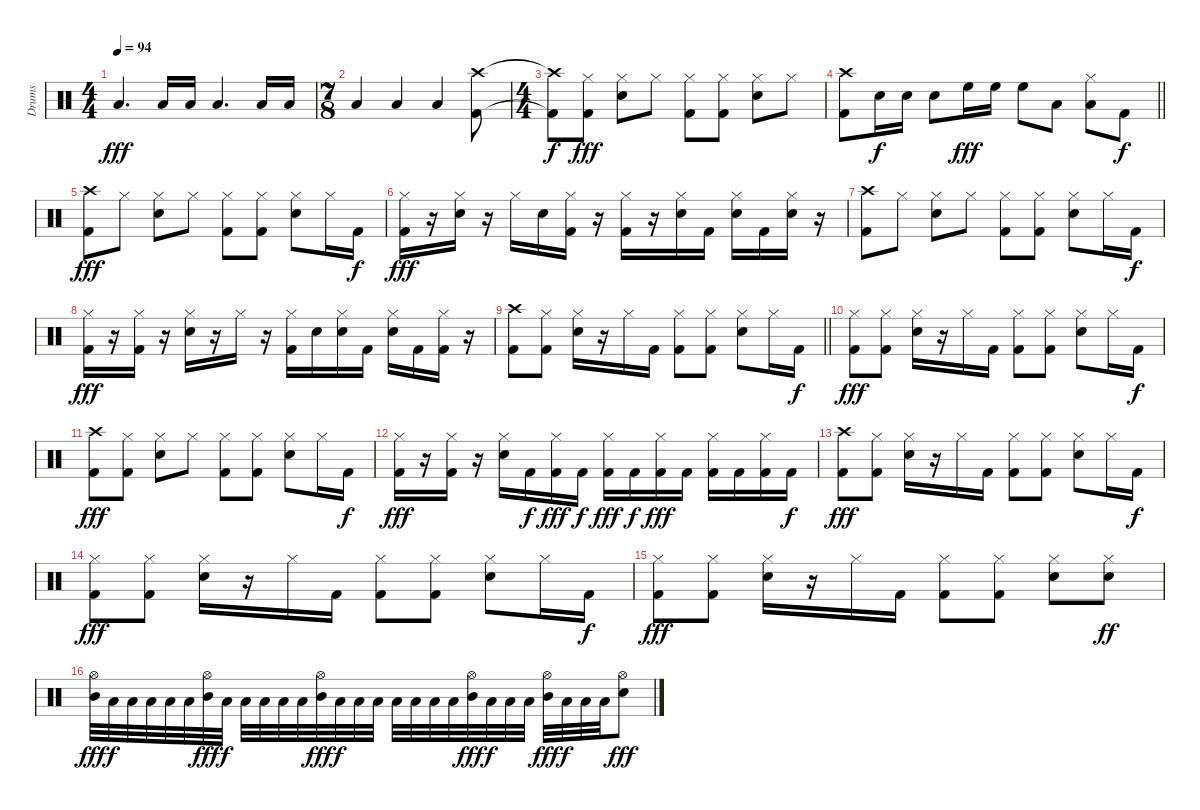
\track ("Drums" "Drums") {instrument percussion}
\staff {score}
\articulation defaults
\ts (4 4)
\tempo 94
\clef neutral
\ks c "Low Floor Tom (hit)".4{d dy fff} "Low Floor Tom (hit)".16 "Low Floor Tom (hit)".16 "Low Floor Tom (hit)".4{d} "Low Floor Tom (hit)".16 "Low Floor Tom (hit)".16
|
\ts (7 8)
"Low Floor Tom (hit)".4 "Low Floor Tom (hit)".4 "Low Floor Tom (hit)".4 ("Crash high (hit)" "Kick (hit) 2").8 |
\ts (4 4)
("Crash high (hit)"{t} "Kick (hit) 2"{t}).8{dy f} ("Hi-Hat (closed)" "Kick (hit) 2").8{dy fff} ("Hi-Hat (closed)" "Snare (hit) 2").8 "Hi-Hat (closed)".8 ("Hi-Hat (closed)" "Kick (hit) 2").8 ("Hi-Hat (closed)" "Kick (hit) 2").8 ("Hi-Hat (closed)" "Snare (hit) 2").8 "Hi-Hat (closed)".8 |
\barLineRight lightlight
("Crash high (hit)" "Kick (hit) 2").8 "Snare (hit) 2".16{dy f} "Snare (hit) 2".16 "Snare (hit) 2".8 "High Floor Tom (hit)".16{dy fff} "High Floor Tom (hit)".16 "High Floor Tom (hit)".8 "Low Floor Tom (hit)".8 ("Hi-Hat (closed)" "Low Floor Tom (hit)").8 "Kick (hit) 2".8{dy f} |
("Crash high (hit)" "Kick (hit) 2").8{dy fff} "Hi-Hat (closed)".8 ("Hi-Hat (closed)" "Snare (hit) 2").8 "Hi-Hat (closed)".8 ("Hi-Hat (closed)" "Kick (hit) 2").8 ("Hi-Hat (closed)" "Kick (hit) 2").8 ("Hi-Hat (closed)" "Snare (hit) 2").8 "Hi-Hat (closed)".16 "Kick (hit) 2".16{dy f} |
("Hi-Hat (closed)" "Kick (hit) 2").16{dy fff} r.16 ("Hi-Hat (closed)" "Snare (hit) 2").16 r.16 "Hi-Hat (closed)".16 "Snare (hit) 2".16 ("Hi-Hat (closed)" "Kick (hit) 2").16 r.16 ("Hi-Hat (closed)" "Kick (hit) 2").16 r.16 ("Hi-Hat (closed)" "Snare (hit) 2").16 "Kick (hit) 2".16 ("Hi-Hat (closed)" "Snare (hit) 2").16 "Kick (hit) 2".16 ("Hi-Hat (closed)" "Snare (hit) 2").16 r.16 |
("Crash high (hit)" "Kick (hit) 2").8 "Hi-Hat (closed)".8 ("Hi-Hat (closed)" "Snare (hit) 2").8 "Hi-Hat (closed)".8 ("Hi-Hat (closed)" "Kick (hit) 2").8 ("Hi-Hat (closed)" "Kick (hit) 2").8 ("Hi-Hat (closed)" "Snare (hit) 2").8 "Hi-Hat (closed)".16 "Kick (hit) 2".16{dy f} |
("Hi-Hat (closed)" "Kick (hit) 2").16{dy fff} r.16 ("Hi-Hat (closed)" "Kick (hit) 2").16 r.16 ("Hi-Hat (closed)" "Snare (hit) 2").16 r.16 "Hi-Hat (closed)".16 r.16 ("Hi-Hat (closed)" "Kick (hit) 2").16 "Snare (hit) 2".16 ("Hi-Hat (closed)" "Snare (hit) 2").16 "Kick (hit) 2".16 ("Hi-Hat (closed)" "Snare (hit) 2").16 "Kick (hit) 2".16 ("Hi-Hat (closed)" "Kick (hit) 2").16 r.16 |
\barLineRight lightlight
("Crash high (hit)" "Kick (hit) 2").8 ("Hi-Hat (closed)" "Kick (hit) 2").8 ("Hi-Hat (closed)" "Snare (hit) 2").16 r.16 "Hi-Hat (closed)".16 "Kick (hit) 2".16 ("Hi-Hat (closed)" "Kick (hit) 2").8 ("Hi-Hat (closed)" "Kick (hit) 2").8 ("Hi-Hat (closed)" "Snare (hit) 2").8 "Hi-Hat (closed)".16 "Kick (hit) 2".16{dy f} |
("Hi-Hat (closed)" "Kick (hit) 2").8{dy fff} ("Hi-Hat (closed)" "Kick (hit) 2").8 ("Hi-Hat (closed)" "Snare (hit) 2").16 r.16 "Hi-Hat (closed)".16 "Kick (hit) 2".16 ("Hi-Hat (closed)" "Kick (hit) 2").8 ("Hi-Hat (closed)" "Kick (hit) 2").8 ("Hi-Hat (closed)" "Snare (hit) 2").8 "Hi-Hat (closed)".16 "Kick (hit) 2".16{dy f} |
("Crash high (hit)" "Kick (hit) 2").8{dy fff} ("Hi-Hat (closed)" "Kick (hit) 2").8 ("Hi-Hat (closed)" "Snare (hit) 2").8 "Hi-Hat (closed)".8 ("Hi-Hat (closed)" "Kick (hit) 2").8 ("Hi-Hat (closed)" "Kick (hit) 2").8 ("Hi-Hat (closed)" "Snare (hit) 2").8 "Hi-Hat (closed)".16 "Kick (hit) 2".16{dy f} |
("Hi-Hat (closed)" "Kick (hit) 2").16{dy fff} r.16 ("Hi-Hat (closed)" "Kick (hit) 2").16 r.16 ("Hi-Hat (closed)" "Snare (hit) 2").16 "Kick (hit) 2".16{dy f} ("Hi-Hat (closed)" "Kick (hit) 2").16{dy fff} "Kick (hit) 2".16{dy f} ("Hi-Hat (closed)" "Kick (hit) 2").16{dy fff} "Kick (hit) 2".16{dy f} ("Hi-Hat (closed)" "Kick (hit) 2").16{dy fff} "Kick (hit) 2".16 ("Hi-Hat (closed)" "Kick (hit) 2").16 "Kick (hit) 2".16 ("Hi-Hat (closed)" "Kick (hit) 2").16 "Kick (hit) 2".16{dy f} |
("Crash high (hit)" "Kick (hit) 2").8{dy fff} ("Hi-Hat (closed)" "Kick (hit) 2").8 ("Hi-Hat (closed)" "Snare (hit) 2").16 r.16 "Hi-Hat (closed)".16 "Kick (hit) 2".16 ("Hi-Hat (closed)" "Kick (hit) 2").8 ("Hi-Hat (closed)" "Kick (hit) 2").8 ("Hi-Hat (closed)" "Snare (hit) 2").8 "Hi-Hat (closed)".16 "Kick (hit) 2".16{dy f} |
("Hi-Hat (closed)" "Kick (hit) 2").8{dy fff} ("Hi-Hat (closed)" "Kick (hit) 2").8 ("Hi-Hat (closed)" "Snare (hit) 2").16 r.16 "Hi-Hat (closed)".16 "Kick (hit) 2".16 ("Hi-Hat (closed)" "Kick (hit) 2").8 ("Hi-Hat (closed)" "Kick (hit) 2").8 ("Hi-Hat (closed)" "Snare (hit) 2").8 "Hi-Hat (closed)".16 "Kick (hit) 2".16{dy f} |
("Hi-Hat (closed)" "Kick (hit) 2").8{dy fff} ("Hi-Hat (closed)" "Kick (hit) 2").8 ("Hi-Hat (closed)" "Snare (hit) 2").16 r.16 "Hi-Hat (closed)".16 "Kick (hit) 2".16 ("Hi-Hat (closed)" "Kick (hit) 2").8 ("Hi-Hat (closed)" "Kick (hit) 2").8 ("Hi-Hat (closed)" "Snare (hit) 2").8 ("Hi-Hat (closed)" "Snare (hit) 2").8{dy ff} |
("Hi-Hat (open)" "Mid Tom (hit)").32{dy fff} "Low Tom (hit)".32{dy f} "Low Tom (hit)".32 "Low Tom (hit)".32 "Low Tom (hit)".32 "Low Tom (hit)".32 ("Hi-Hat (open)" "Mid Tom (hit)").32{dy fff} "Low Tom (hit)".32{dy f} "Low Tom (hit)".32 "Low Tom (hit)".32 "Low Tom (hit)".32 "Low Tom (hit)".32 ("Hi-Hat (open)" "Mid Tom (hit)").32{dy fff} "Low Tom (hit)".32{dy f} "Low Tom (hit)".32 "Low Tom (hit)".32 "Low Tom (hit)".32 "Low Tom (hit)".32 "Low Tom (hit)".32 "Low Tom (hit)".32 ("Hi-Hat (open)" "Mid Tom (hit)").32{dy fff} "Low Tom (hit)".32{dy f} "Low Tom (hit)".32 "Low Tom (hit)".32 ("Hi-Hat (open)" "Mid Tom (hit)").32{dy fff} "Low Tom (hit)".32{dy f} "Low Tom (hit)".32 "Low Tom (hit)".32 ("Hi-Hat (open)" "Snare (hit) 2").8{dy fff}
